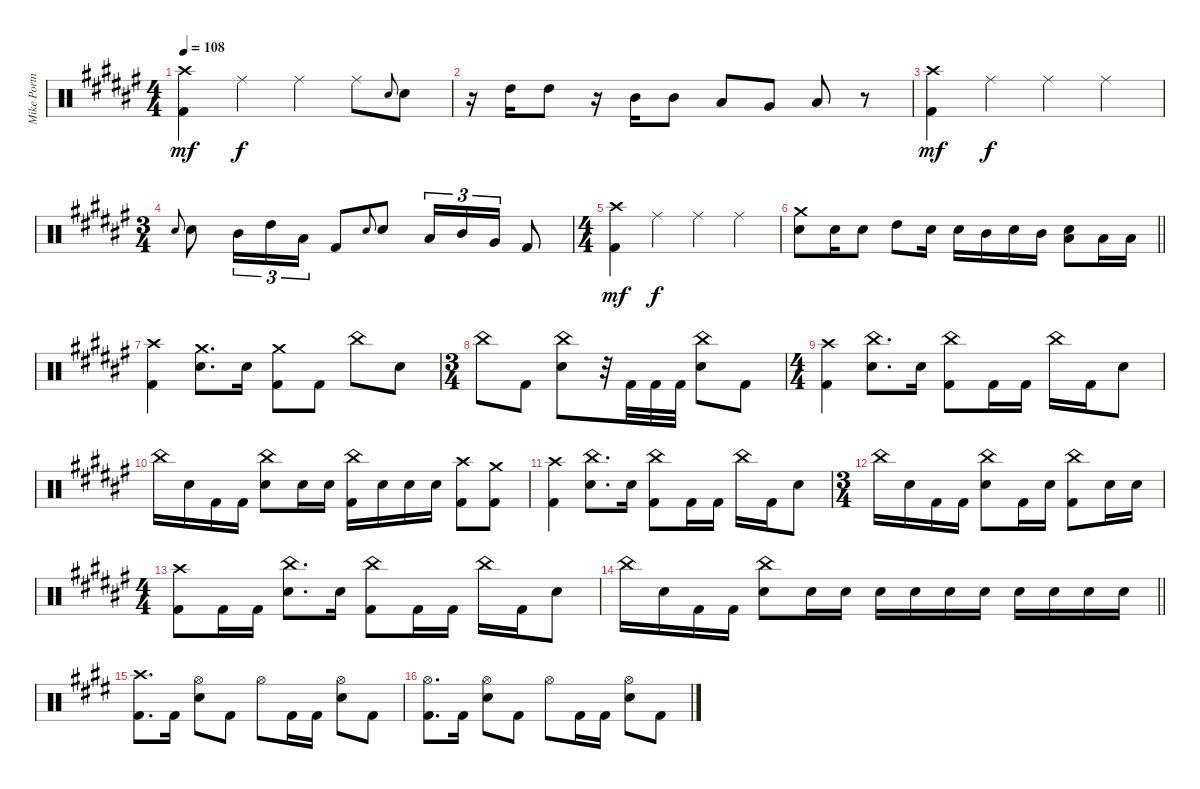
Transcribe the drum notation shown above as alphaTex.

\track ("Mike Portnoy" "Mike Portn") {instrument percussion}
\staff {score}
\articulation defaults
\ts (4 4)
\tempo 108
\clef neutral
\ks f#
("Crash high (hit)" "Kick (hit) 2").4{dy mf} "Ride (middle)".4{dy f} "Ride (middle)".4 "Ride (middle)".8 "Snare (hit) 2".8{gr onbeat} "Snare (hit) 2".8 |
r.16 "High Tom (hit)".16 "High Tom (hit)".8 r.16 "Mid Tom (hit)".16 "Mid Tom (hit)".8 "Low Tom (hit)".8 "Very Low Tom (hit)".8 "Low Floor Tom (hit)".8 r.8 |
("Crash high (hit)" "Kick (hit) 2").4{dy mf} "Ride (middle)".4{dy f} "Ride (middle)".4 "Ride (middle)".4 |
\ts (3 4)
"Snare (hit) 2".8{gr onbeat} "Snare (hit) 2".8 "Mid Tom (hit)".16{tu (3 2)} "High Tom (hit)".16{tu (3 2)} "Low Tom (hit)".16{tu (3 2)} "Kick (hit) 2".8 "Snare (hit) 2".8{gr onbeat} "Snare (hit) 2".8 "Low Tom (hit)".16{tu (3 2)} "Mid Tom (hit)".16{tu (3 2)} "Very Low Tom (hit)".16{tu (3 2)} "Kick (hit) 2".8 |
\ts (4 4)
("Crash high (hit)" "Kick (hit) 2").4{dy mf} "Ride (middle)".4{dy f} "Ride (middle)".4 "Ride (middle)".4 |
\barLineRight lightlight
("Crash medium (hit)" "Snare (hit) 2").8 "Snare (hit) 2".16 "Snare (hit) 2".8 "High Tom (hit)".8 "Snare (hit) 2".16 "Snare (hit) 2".16 "Mid Tom (hit)".16 "Snare (hit) 2".16 "Mid Tom (hit)".16 ("Snare (hit) 2" "Low Tom (hit)").8 "Low Tom (hit)".16 "Low Tom (hit)".16 |
("Crash high (hit)" "Kick (hit) 2").4 ("Crash medium (hit)" "Snare (hit) 2").8{d} "Snare (hit) 2".16 ("Crash medium (hit)" "Kick (hit) 2").8 "Kick (hit) 2".8 "China (hit)".8 "Snare (hit) 2".8 |
\ts (3 4)
"China (hit)".8 "Kick (hit) 2".8 ("China (hit)" "Snare (hit) 2").8 r.32 "Kick (hit) 2".32 "Kick (hit) 2".32 "Kick (hit) 2".32 ("China (hit)" "Snare (hit) 2").8 "Kick (hit) 2".8 |
\ts (4 4)
("Crash high (hit)" "Kick (hit) 2").4 ("China (hit)" "Snare (hit) 2").8{d} "Snare (hit) 2".16 ("China (hit)" "Kick (hit) 2").8 "Kick (hit) 2".16 "Kick (hit) 2".16 "China (hit)".16 "Kick (hit) 2".16 "Snare (hit) 2".8 |
"China (hit)".16 "Snare (hit) 2".16 "Kick (hit) 2".16 "Kick (hit) 2".16 ("China (hit)" "Snare (hit) 2").8 "Snare (hit) 2".16 "Snare (hit) 2".16 ("China (hit)" "Kick (hit) 2").16 "Snare (hit) 2".16 "Snare (hit) 2".16 "Snare (hit) 2".16 ("Crash high (hit)" "Kick (hit) 2").8 ("Crash medium (hit)" "Kick (hit) 2").8 |
("Crash high (hit)" "Kick (hit) 2").4 ("China (hit)" "Snare (hit) 2").8{d} "Snare (hit) 2".16 ("China (hit)" "Kick (hit) 2").8 "Kick (hit) 2".16 "Kick (hit) 2".16 "China (hit)".16 "Kick (hit) 2".16 "Snare (hit) 2".8 |
\ts (3 4)
"China (hit)".16 "Snare (hit) 2".16 "Kick (hit) 2".16 "Kick (hit) 2".16 ("China (hit)" "Snare (hit) 2").8 "Kick (hit) 2".16 "Snare (hit) 2".16 ("China (hit)" "Kick (hit) 2").8 "Snare (hit) 2".16 "Snare (hit) 2".16 |
\ts (4 4)
("Crash high (hit)" "Kick (hit) 2").8 "Kick (hit) 2".16 "Kick (hit) 2".16 ("China (hit)" "Snare (hit) 2").8{d} "Snare (hit) 2".16 ("China (hit)" "Kick (hit) 2").8 "Kick (hit) 2".16 "Kick (hit) 2".16 "China (hit)".16 "Kick (hit) 2".16 "Snare (hit) 2".8 |
\barLineRight lightlight "China (hit)".16 "Snare (hit) 2".16 "Kick (hit) 2".16 "Kick (hit) 2".16
("China (hit)" "Snare (hit) 2").8 "Snare (hit) 2".16 "Snare (hit) 2".16 "Snare (hit) 2".16 "Snare (hit) 2".16 "Snare (hit) 2".16 "Snare (hit) 2".16 "Snare (hit) 2".16 "Snare (hit) 2".16 "Snare (hit) 2".16 "Snare (hit) 2".16 |
\ks e
("Crash high (hit)" "Kick (hit) 2").8{d} "Kick (hit) 2".16 ("Hi-Hat (open)" "Snare (hit) 2").8 "Kick (hit) 2".8 "Hi-Hat (open)".8 "Kick (hit) 2".16 "Kick (hit) 2".16 ("Hi-Hat (open)" "Snare (hit) 2").8 "Kick (hit) 2".8 |
("Hi-Hat (open)" "Kick (hit) 2").8{d} "Kick (hit) 2".16 ("Hi-Hat (open)" "Snare (hit) 2").8 "Kick (hit) 2".8 "Hi-Hat (open)".8 "Kick (hit) 2".16 "Kick (hit) 2".16 ("Hi-Hat (open)" "Snare (hit) 2").8 "Kick (hit) 2".8
